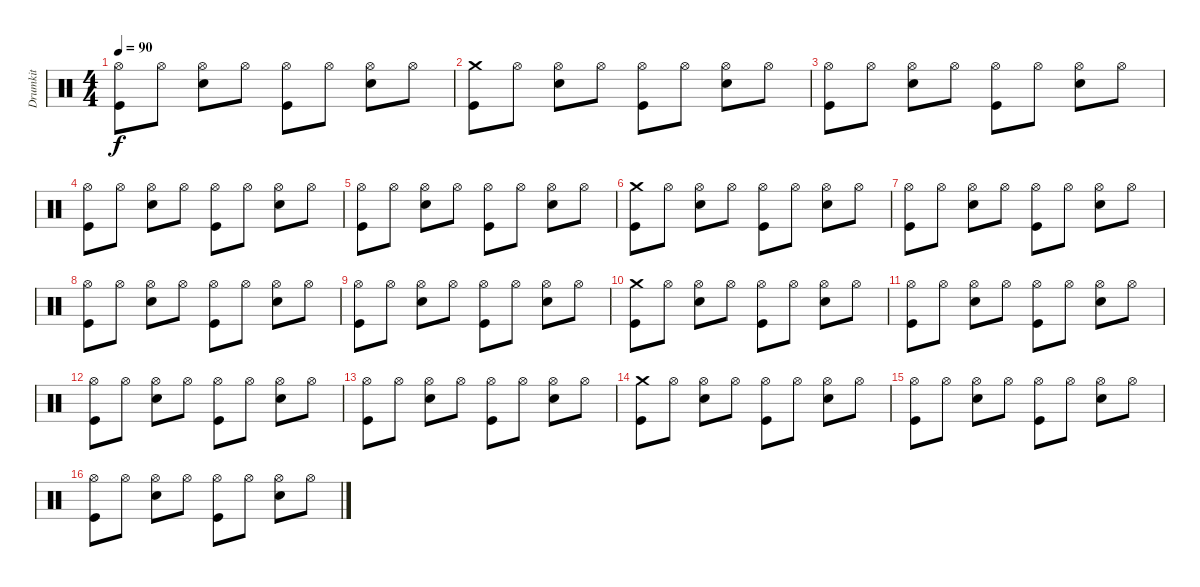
\track ("Drumkit" "Drumkit") {instrument percussion}
\staff {score}
\articulation defaults
\ts (4 4)
\tempo 90
\clef neutral
\ks c
("Hi-Hat (open)" "Kick (hit)").8{dy f} "Hi-Hat (open)".8 ("Hi-Hat (open)" "Snare (hit) 2").8 "Hi-Hat (open)".8 ("Hi-Hat (open)" "Kick (hit)").8 "Hi-Hat (open)".8 ("Hi-Hat (open)" "Snare (hit) 2").8 "Hi-Hat (open)".8 |
("Crash medium (hit)" "Kick (hit)").8 "Hi-Hat (open)".8 ("Hi-Hat (open)" "Snare (hit) 2").8 "Hi-Hat (open)".8 ("Hi-Hat (open)" "Kick (hit)").8 "Hi-Hat (open)".8 ("Hi-Hat (open)" "Snare (hit) 2").8 "Hi-Hat (open)".8 |
("Hi-Hat (open)" "Kick (hit)").8 "Hi-Hat (open)".8 ("Hi-Hat (open)" "Snare (hit) 2").8 "Hi-Hat (open)".8 ("Hi-Hat (open)" "Kick (hit)").8 "Hi-Hat (open)".8 ("Hi-Hat (open)" "Snare (hit) 2").8 "Hi-Hat (open)".8 |
("Hi-Hat (open)" "Kick (hit)").8 "Hi-Hat (open)".8 ("Hi-Hat (open)" "Snare (hit) 2").8 "Hi-Hat (open)".8 ("Hi-Hat (open)" "Kick (hit)").8 "Hi-Hat (open)".8 ("Hi-Hat (open)" "Snare (hit) 2").8 "Hi-Hat (open)".8 |
("Hi-Hat (open)" "Kick (hit)").8 "Hi-Hat (open)".8 ("Hi-Hat (open)" "Snare (hit) 2").8 "Hi-Hat (open)".8 ("Hi-Hat (open)" "Kick (hit)").8 "Hi-Hat (open)".8 ("Hi-Hat (open)" "Snare (hit) 2").8 "Hi-Hat (open)".8 |
("Crash medium (hit)" "Kick (hit)").8 "Hi-Hat (open)".8 ("Hi-Hat (open)" "Snare (hit) 2").8 "Hi-Hat (open)".8 ("Hi-Hat (open)" "Kick (hit)").8 "Hi-Hat (open)".8 ("Hi-Hat (open)" "Snare (hit) 2").8 "Hi-Hat (open)".8 |
("Hi-Hat (open)" "Kick (hit)").8 "Hi-Hat (open)".8 ("Hi-Hat (open)" "Snare (hit) 2").8 "Hi-Hat (open)".8 ("Hi-Hat (open)" "Kick (hit)").8 "Hi-Hat (open)".8 ("Hi-Hat (open)" "Snare (hit) 2").8 "Hi-Hat (open)".8 |
("Hi-Hat (open)" "Kick (hit)").8 "Hi-Hat (open)".8 ("Hi-Hat (open)" "Snare (hit) 2").8 "Hi-Hat (open)".8 ("Hi-Hat (open)" "Kick (hit)").8 "Hi-Hat (open)".8 ("Hi-Hat (open)" "Snare (hit) 2").8 "Hi-Hat (open)".8 |
("Hi-Hat (open)" "Kick (hit)").8 "Hi-Hat (open)".8 ("Hi-Hat (open)" "Snare (hit) 2").8 "Hi-Hat (open)".8 ("Hi-Hat (open)" "Kick (hit)").8 "Hi-Hat (open)".8 ("Hi-Hat (open)" "Snare (hit) 2").8 "Hi-Hat (open)".8 |
("Crash medium (hit)" "Kick (hit)").8 "Hi-Hat (open)".8 ("Hi-Hat (open)" "Snare (hit) 2").8 "Hi-Hat (open)".8 ("Hi-Hat (open)" "Kick (hit)").8 "Hi-Hat (open)".8 ("Hi-Hat (open)" "Snare (hit) 2").8 "Hi-Hat (open)".8 |
("Hi-Hat (open)" "Kick (hit)").8 "Hi-Hat (open)".8 ("Hi-Hat (open)" "Snare (hit) 2").8 "Hi-Hat (open)".8 ("Hi-Hat (open)" "Kick (hit)").8 "Hi-Hat (open)".8 ("Hi-Hat (open)" "Snare (hit) 2").8 "Hi-Hat (open)".8 |
("Hi-Hat (open)" "Kick (hit)").8 "Hi-Hat (open)".8 ("Hi-Hat (open)" "Snare (hit) 2").8 "Hi-Hat (open)".8 ("Hi-Hat (open)" "Kick (hit)").8 "Hi-Hat (open)".8 ("Hi-Hat (open)" "Snare (hit) 2").8 "Hi-Hat (open)".8 |
("Hi-Hat (open)" "Kick (hit)").8 "Hi-Hat (open)".8 ("Hi-Hat (open)" "Snare (hit) 2").8 "Hi-Hat (open)".8 ("Hi-Hat (open)" "Kick (hit)").8 "Hi-Hat (open)".8 ("Hi-Hat (open)" "Snare (hit) 2").8 "Hi-Hat (open)".8 |
("Crash medium (hit)" "Kick (hit)").8 "Hi-Hat (open)".8 ("Hi-Hat (open)" "Snare (hit) 2").8 "Hi-Hat (open)".8 ("Hi-Hat (open)" "Kick (hit)").8 "Hi-Hat (open)".8 ("Hi-Hat (open)" "Snare (hit) 2").8 "Hi-Hat (open)".8 |
("Hi-Hat (open)" "Kick (hit)").8 "Hi-Hat (open)".8 ("Hi-Hat (open)" "Snare (hit) 2").8 "Hi-Hat (open)".8 ("Hi-Hat (open)" "Kick (hit)").8 "Hi-Hat (open)".8 ("Hi-Hat (open)" "Snare (hit) 2").8 "Hi-Hat (open)".8 |
("Hi-Hat (open)" "Kick (hit)").8 "Hi-Hat (open)".8 ("Hi-Hat (open)" "Snare (hit) 2").8 "Hi-Hat (open)".8 ("Hi-Hat (open)" "Kick (hit)").8 "Hi-Hat (open)".8 ("Hi-Hat (open)" "Snare (hit) 2").8 "Hi-Hat (open)".8
